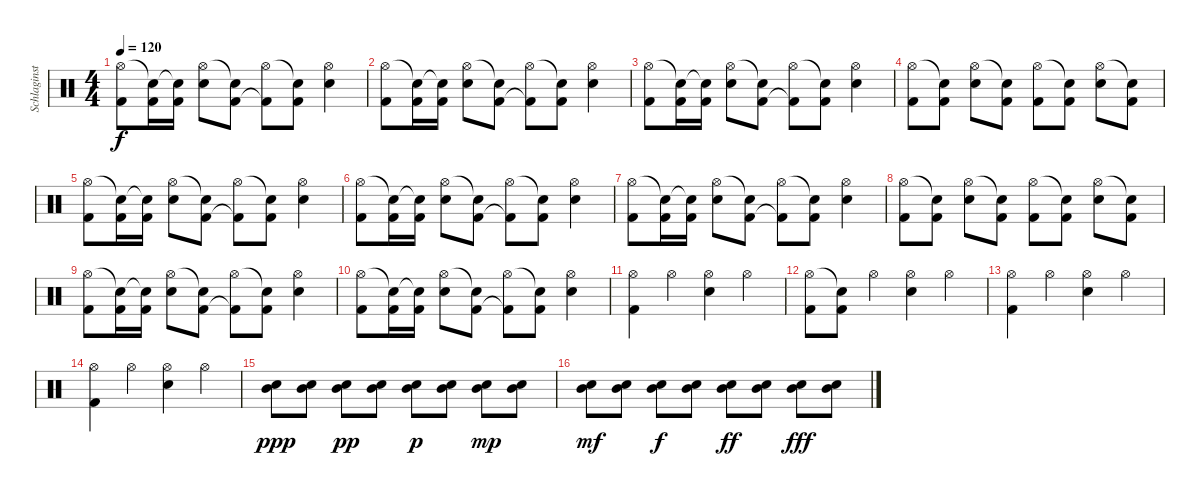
\track ("Schlaginstrumente - Auswahl" "Schlaginst") {instrument percussion}
\staff {score}
\articulation defaults
\ts (4 4)
\tempo 120
\clef neutral
\ks c
("Hi-Hat (open)" "Kick (hit) 2").8{dy f} ("Snare (hit)"{t} "Kick (hit) 2").16 ("Snare (hit)"{t} "Kick (hit) 2").16 ("Hi-Hat (open)" "Snare (hit) 2").8 ("Snare (hit)"{t} "Kick (hit) 2").8 ("Hi-Hat (open)" "Kick (hit) 2"{t}).8 ("Snare (hit)"{t} "Kick (hit) 2").8 ("Hi-Hat (open)" "Snare (hit) 2").4 |
("Hi-Hat (open)" "Kick (hit) 2").8 ("Snare (hit)"{t} "Kick (hit) 2").16 ("Snare (hit)"{t} "Kick (hit) 2").16 ("Hi-Hat (open)" "Snare (hit) 2").8 ("Snare (hit)"{t} "Kick (hit) 2").8 ("Hi-Hat (open)" "Kick (hit) 2"{t}).8 ("Snare (hit)"{t} "Kick (hit) 2").8 ("Hi-Hat (open)" "Snare (hit) 2").4 |
("Hi-Hat (open)" "Kick (hit) 2").8 ("Snare (hit)"{t} "Kick (hit) 2").16 ("Snare (hit)"{t} "Kick (hit) 2").16 ("Hi-Hat (open)" "Snare (hit) 2").8 ("Snare (hit)"{t} "Kick (hit) 2").8 ("Hi-Hat (open)" "Kick (hit) 2"{t}).8 ("Snare (hit)"{t} "Kick (hit) 2").8 ("Hi-Hat (open)" "Snare (hit) 2").4 |
("Hi-Hat (open)" "Kick (hit) 2").8 ("Snare (hit)"{t} "Kick (hit) 2").8 ("Hi-Hat (open)" "Snare (hit) 2").8 ("Snare (hit)"{t} "Kick (hit) 2").8 ("Hi-Hat (open)" "Kick (hit) 2").8 ("Snare (hit)"{t} "Kick (hit) 2").8 ("Hi-Hat (open)" "Snare (hit) 2").8 ("Snare (hit)"{t} "Kick (hit) 2").8 |
("Hi-Hat (open)" "Kick (hit) 2").8 ("Snare (hit)"{t} "Kick (hit) 2").16 ("Snare (hit)"{t} "Kick (hit) 2").16 ("Hi-Hat (open)" "Snare (hit) 2").8 ("Snare (hit)"{t} "Kick (hit) 2").8 ("Hi-Hat (open)" "Kick (hit) 2"{t}).8 ("Snare (hit)"{t} "Kick (hit) 2").8 ("Hi-Hat (open)" "Snare (hit) 2").4 |
("Hi-Hat (open)" "Kick (hit) 2").8 ("Snare (hit)"{t} "Kick (hit) 2").16 ("Snare (hit)"{t} "Kick (hit) 2").16 ("Hi-Hat (open)" "Snare (hit) 2").8 ("Snare (hit)"{t} "Kick (hit) 2").8 ("Hi-Hat (open)" "Kick (hit) 2"{t}).8 ("Snare (hit)"{t} "Kick (hit) 2").8 ("Hi-Hat (open)" "Snare (hit) 2").4 |
("Hi-Hat (open)" "Kick (hit) 2").8 ("Snare (hit)"{t} "Kick (hit) 2").16 ("Snare (hit)"{t} "Kick (hit) 2").16 ("Hi-Hat (open)" "Snare (hit) 2").8 ("Snare (hit)"{t} "Kick (hit) 2").8 ("Hi-Hat (open)" "Kick (hit) 2"{t}).8 ("Snare (hit)"{t} "Kick (hit) 2").8 ("Hi-Hat (open)" "Snare (hit) 2").4 |
("Hi-Hat (open)" "Kick (hit) 2").8 ("Snare (hit)"{t} "Kick (hit) 2").8 ("Hi-Hat (open)" "Snare (hit) 2").8 ("Snare (hit)"{t} "Kick (hit) 2").8 ("Hi-Hat (open)" "Kick (hit) 2").8 ("Snare (hit)"{t} "Kick (hit) 2").8 ("Hi-Hat (open)" "Snare (hit) 2").8 ("Snare (hit)"{t} "Kick (hit) 2").8 |
("Hi-Hat (open)" "Kick (hit) 2").8 ("Snare (hit)"{t} "Kick (hit) 2").16 ("Snare (hit)"{t} "Kick (hit) 2").16 ("Hi-Hat (open)" "Snare (hit) 2").8 ("Snare (hit)"{t} "Kick (hit) 2").8 ("Hi-Hat (open)" "Kick (hit) 2"{t}).8 ("Snare (hit)"{t} "Kick (hit) 2").8 ("Hi-Hat (open)" "Snare (hit) 2").4 |
("Hi-Hat (open)" "Kick (hit) 2").8 ("Snare (hit)"{t} "Kick (hit) 2").16 ("Snare (hit)"{t} "Kick (hit) 2").16 ("Hi-Hat (open)" "Snare (hit) 2").8 ("Snare (hit)"{t} "Kick (hit) 2").8 ("Hi-Hat (open)" "Kick (hit) 2"{t}).8 ("Snare (hit)"{t} "Kick (hit) 2").8 ("Hi-Hat (open)" "Snare (hit) 2").4 |
("Hi-Hat (open)" "Kick (hit) 2").4 "Hi-Hat (open)".4 ("Hi-Hat (open)" "Snare (hit) 2").4 "Hi-Hat (open)".4 |
("Hi-Hat (open)" "Kick (hit) 2").8 ("Snare (hit)"{t} "Kick (hit) 2").8 "Hi-Hat (open)".4 ("Hi-Hat (open)" "Snare (hit) 2").4 "Hi-Hat (open)".4 |
("Hi-Hat (open)" "Kick (hit) 2").4 "Hi-Hat (open)".4 ("Hi-Hat (open)" "Snare (hit) 2").4 "Hi-Hat (open)".4 |
("Hi-Hat (open)" "Kick (hit) 2").4 "Hi-Hat (open)".4 ("Hi-Hat (open)" "Snare (hit) 2").4 "Hi-Hat (open)".4 |
("Mid Tom (hit)" "Snare (hit) 2").8{dy ppp} ("Mid Tom (hit)" "Snare (hit) 2").8 ("Mid Tom (hit)" "Snare (hit) 2").8{dy pp} ("Mid Tom (hit)" "Snare (hit) 2").8 ("Mid Tom (hit)" "Snare (hit) 2").8{dy p} ("Mid Tom (hit)" "Snare (hit) 2").8 ("Mid Tom (hit)" "Snare (hit) 2").8{dy mp} ("Mid Tom (hit)" "Snare (hit) 2").8 |
("Mid Tom (hit)" "Snare (hit) 2").8{dy mf} ("Mid Tom (hit)" "Snare (hit) 2").8 ("Mid Tom (hit)" "Snare (hit) 2").8{dy f} ("Mid Tom (hit)" "Snare (hit) 2").8 ("Mid Tom (hit)" "Snare (hit) 2").8{dy ff} ("Mid Tom (hit)" "Snare (hit) 2").8 ("Mid Tom (hit)" "Snare (hit) 2").8{dy fff} ("Mid Tom (hit)" "Snare (hit) 2").8
